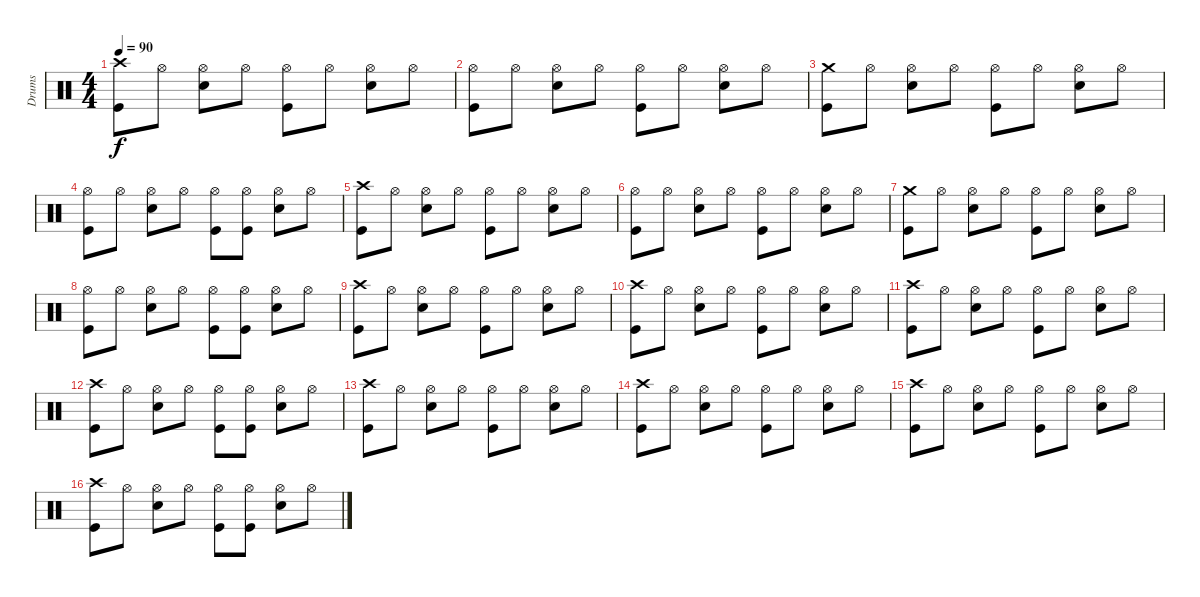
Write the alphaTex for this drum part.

\track ("Drums" "Drums") {instrument percussion}
\staff {score}
\articulation defaults
\ts (4 4)
\tempo 90
\clef neutral
\ks c
("Crash high (hit)" "Kick (hit)").8{dy f volume 16} "Hi-Hat (open)".8 ("Hi-Hat (open)" "Electric Snare (hit)").8 "Hi-Hat (open)".8 ("Hi-Hat (open)" "Kick (hit)").8 "Hi-Hat (open)".8 ("Hi-Hat (open)" "Electric Snare (hit)").8 "Hi-Hat (open)".8 |
("Hi-Hat (open)" "Kick (hit)").8 "Hi-Hat (open)".8 ("Hi-Hat (open)" "Electric Snare (hit)").8 "Hi-Hat (open)".8 ("Hi-Hat (open)" "Kick (hit)").8 "Hi-Hat (open)".8 ("Hi-Hat (open)" "Electric Snare (hit)").8 "Hi-Hat (open)".8 |
("Crash medium (hit)" "Kick (hit)").8 "Hi-Hat (open)".8 ("Hi-Hat (open)" "Electric Snare (hit)").8 "Hi-Hat (open)".8 ("Hi-Hat (open)" "Kick (hit)").8 "Hi-Hat (open)".8 ("Hi-Hat (open)" "Electric Snare (hit)").8 "Hi-Hat (open)".8 |
("Hi-Hat (open)" "Kick (hit)").8 "Hi-Hat (open)".8 ("Hi-Hat (open)" "Electric Snare (hit)").8 "Hi-Hat (open)".8 ("Hi-Hat (open)" "Kick (hit)").8 ("Hi-Hat (open)" "Kick (hit)").8 ("Hi-Hat (open)" "Electric Snare (hit)").8 "Hi-Hat (open)".8 |
("Crash high (hit)" "Kick (hit)").8 "Hi-Hat (open)".8 ("Hi-Hat (open)" "Electric Snare (hit)").8 "Hi-Hat (open)".8 ("Hi-Hat (open)" "Kick (hit)").8 "Hi-Hat (open)".8 ("Hi-Hat (open)" "Electric Snare (hit)").8 "Hi-Hat (open)".8 |
("Hi-Hat (open)" "Kick (hit)").8 "Hi-Hat (open)".8 ("Hi-Hat (open)" "Electric Snare (hit)").8 "Hi-Hat (open)".8 ("Hi-Hat (open)" "Kick (hit)").8 "Hi-Hat (open)".8 ("Hi-Hat (open)" "Electric Snare (hit)").8 "Hi-Hat (open)".8 |
("Crash medium (hit)" "Kick (hit)").8 "Hi-Hat (open)".8 ("Hi-Hat (open)" "Electric Snare (hit)").8 "Hi-Hat (open)".8 ("Hi-Hat (open)" "Kick (hit)").8 "Hi-Hat (open)".8 ("Hi-Hat (open)" "Electric Snare (hit)").8 "Hi-Hat (open)".8 |
("Hi-Hat (open)" "Kick (hit)").8 "Hi-Hat (open)".8 ("Hi-Hat (open)" "Electric Snare (hit)").8 "Hi-Hat (open)".8 ("Hi-Hat (open)" "Kick (hit)").8 ("Hi-Hat (open)" "Kick (hit)").8 ("Hi-Hat (open)" "Electric Snare (hit)").8 "Hi-Hat (open)".8 |
("Crash high (hit)" "Kick (hit)").8 "Hi-Hat (open)".8 ("Hi-Hat (open)" "Electric Snare (hit)").8 "Hi-Hat (open)".8 ("Hi-Hat (open)" "Kick (hit)").8 "Hi-Hat (open)".8 ("Hi-Hat (open)" "Electric Snare (hit)").8 "Hi-Hat (open)".8 |
("Crash high (hit)" "Kick (hit)").8 "Hi-Hat (open)".8 ("Hi-Hat (open)" "Electric Snare (hit)").8 "Hi-Hat (open)".8 ("Hi-Hat (open)" "Kick (hit)").8 "Hi-Hat (open)".8 ("Hi-Hat (open)" "Electric Snare (hit)").8 "Hi-Hat (open)".8 |
("Crash high (hit)" "Kick (hit)").8 "Hi-Hat (open)".8 ("Hi-Hat (open)" "Electric Snare (hit)").8 "Hi-Hat (open)".8 ("Hi-Hat (open)" "Kick (hit)").8 "Hi-Hat (open)".8 ("Hi-Hat (open)" "Electric Snare (hit)").8 "Hi-Hat (open)".8 |
("Crash high (hit)" "Kick (hit)").8 "Hi-Hat (open)".8 ("Hi-Hat (open)" "Electric Snare (hit)").8 "Hi-Hat (open)".8 ("Hi-Hat (open)" "Kick (hit)").8 ("Hi-Hat (open)" "Kick (hit)").8 ("Hi-Hat (open)" "Electric Snare (hit)").8 "Hi-Hat (open)".8 |
("Crash high (hit)" "Kick (hit)").8 "Hi-Hat (open)".8 ("Hi-Hat (open)" "Electric Snare (hit)").8 "Hi-Hat (open)".8 ("Hi-Hat (open)" "Kick (hit)").8 "Hi-Hat (open)".8 ("Hi-Hat (open)" "Electric Snare (hit)").8 "Hi-Hat (open)".8 |
("Crash high (hit)" "Kick (hit)").8 "Hi-Hat (open)".8 ("Hi-Hat (open)" "Electric Snare (hit)").8 "Hi-Hat (open)".8 ("Hi-Hat (open)" "Kick (hit)").8 "Hi-Hat (open)".8 ("Hi-Hat (open)" "Electric Snare (hit)").8 "Hi-Hat (open)".8 |
("Crash high (hit)" "Kick (hit)").8 "Hi-Hat (open)".8 ("Hi-Hat (open)" "Electric Snare (hit)").8 "Hi-Hat (open)".8 ("Hi-Hat (open)" "Kick (hit)").8 "Hi-Hat (open)".8 ("Hi-Hat (open)" "Electric Snare (hit)").8 "Hi-Hat (open)".8 |
("Crash high (hit)" "Kick (hit)").8 "Hi-Hat (open)".8 ("Hi-Hat (open)" "Electric Snare (hit)").8 "Hi-Hat (open)".8 ("Hi-Hat (open)" "Kick (hit)").8 ("Hi-Hat (open)" "Kick (hit)").8 ("Hi-Hat (open)" "Electric Snare (hit)").8 "Hi-Hat (open)".8
